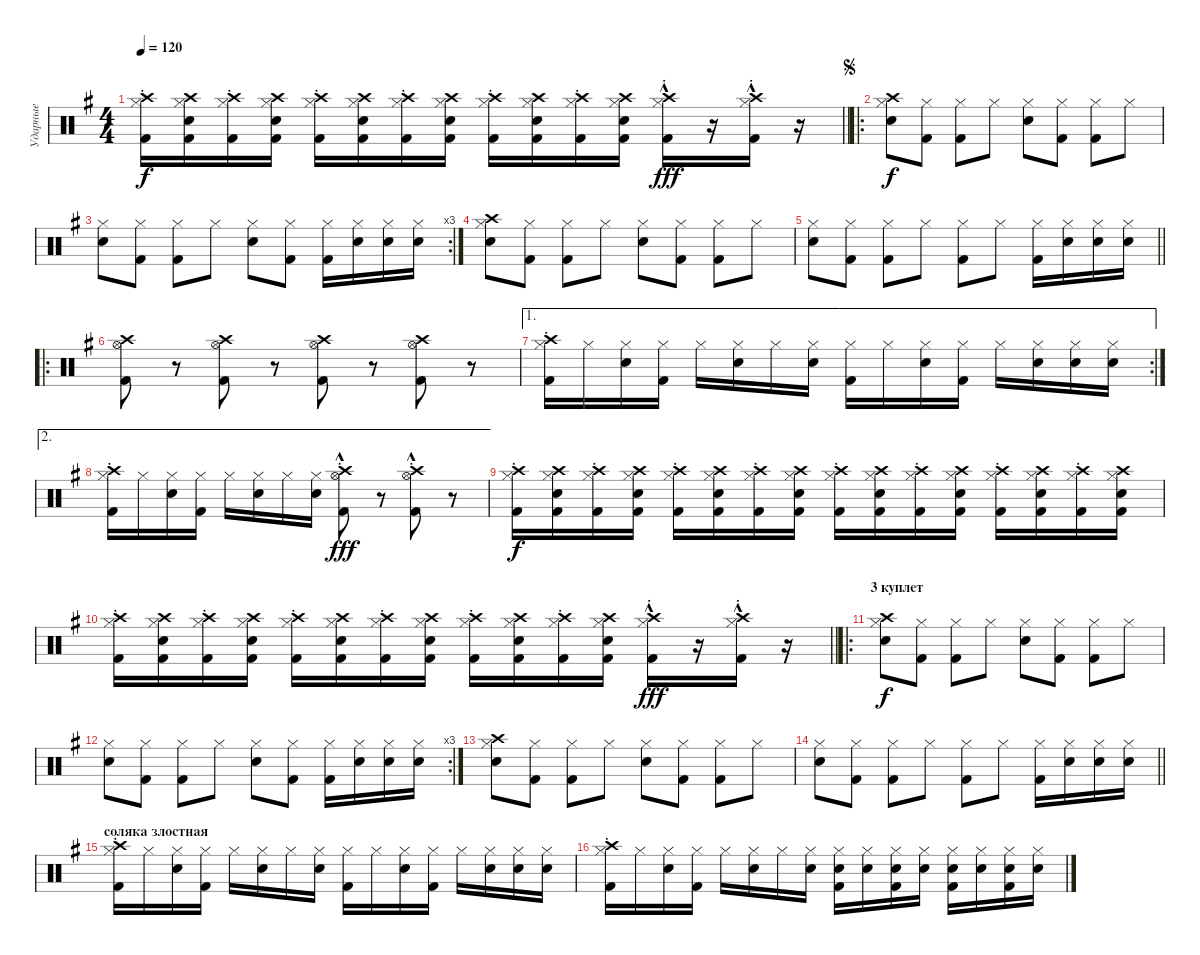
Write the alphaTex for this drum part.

\track ("Ударные" "Ударные") {instrument percussion}
\staff {score}
\articulation defaults
\ts (4 4)
\tempo 120
\clef neutral
\barLineRight lightlight
\ks eminor
("Hi-Hat (closed)" "Crash high (hit)" "Kick (hit) 2"{st}).16{dy f} ("Hi-Hat (closed)" "Crash high (hit)" "Snare (hit) 2" "Kick (hit) 2").16 ("Hi-Hat (closed)" "Crash high (hit)" "Kick (hit) 2"{st}).16 ("Hi-Hat (closed)" "Crash high (hit)" "Snare (hit) 2" "Kick (hit) 2").16 ("Hi-Hat (closed)" "Crash high (hit)" "Kick (hit) 2"{st}).16 ("Hi-Hat (closed)" "Crash high (hit)" "Snare (hit) 2" "Kick (hit) 2").16 ("Hi-Hat (closed)" "Crash high (hit)" "Kick (hit) 2"{st}).16 ("Hi-Hat (closed)" "Crash high (hit)" "Snare (hit) 2" "Kick (hit) 2").16 ("Hi-Hat (closed)" "Crash high (hit)" "Kick (hit) 2"{st}).16 ("Hi-Hat (closed)" "Crash high (hit)" "Snare (hit) 2" "Kick (hit) 2").16 ("Hi-Hat (closed)" "Crash high (hit)" "Kick (hit) 2"{st}).16 ("Hi-Hat (closed)" "Crash high (hit)" "Snare (hit) 2" "Kick (hit) 2").16 ("Hi-Hat (closed)" "Crash high (hit)"{hac} "Kick (hit) 2"{hac st}).16{dy fff} r.16 ("Hi-Hat (closed)" "Crash high (hit)"{hac} "Kick (hit) 2"{hac st}).16 r.16 |
\ro
\jump segno
("Hi-Hat (closed)" "Crash high (hit)" "Snare (hit) 2").8{dy f} ("Hi-Hat (closed)" "Kick (hit) 2").8 ("Hi-Hat (closed)" "Kick (hit) 2").8 "Hi-Hat (closed)".8 ("Hi-Hat (closed)" "Snare (hit) 2").8 ("Hi-Hat (closed)" "Kick (hit) 2").8 ("Hi-Hat (closed)" "Kick (hit) 2").8 "Hi-Hat (closed)".8 |
\rc 3
("Hi-Hat (closed)" "Snare (hit) 2").8 ("Hi-Hat (closed)" "Kick (hit) 2").8 ("Hi-Hat (closed)" "Kick (hit) 2").8 "Hi-Hat (closed)".8 ("Hi-Hat (closed)" "Snare (hit) 2").8 ("Hi-Hat (closed)" "Kick (hit) 2").8 ("Hi-Hat (closed)" "Kick (hit) 2").16 ("Hi-Hat (closed)" "Snare (hit) 2").16 ("Hi-Hat (closed)" "Snare (hit) 2").16 ("Hi-Hat (closed)" "Snare (hit) 2").16 |
("Hi-Hat (closed)" "Crash high (hit)" "Snare (hit) 2").8 ("Hi-Hat (closed)" "Kick (hit) 2").8 ("Hi-Hat (closed)" "Kick (hit) 2").8 "Hi-Hat (closed)".8 ("Hi-Hat (closed)" "Snare (hit) 2").8 ("Hi-Hat (closed)" "Kick (hit) 2").8 ("Hi-Hat (closed)" "Kick (hit) 2").8 "Hi-Hat (closed)".8 |
\barLineRight lightlight
("Hi-Hat (closed)" "Snare (hit) 2").8 ("Hi-Hat (closed)" "Kick (hit) 2").8 ("Hi-Hat (closed)" "Kick (hit) 2").8 "Hi-Hat (closed)".8 ("Hi-Hat (closed)" "Kick (hit) 2").8 "Hi-Hat (closed)".8 ("Hi-Hat (closed)" "Kick (hit) 2").16 ("Hi-Hat (closed)" "Snare (hit) 2").16 ("Hi-Hat (closed)" "Snare (hit) 2").16 ("Hi-Hat (closed)" "Snare (hit) 2").16 |
\ro
("Crash high (hit)" "Hi-Hat (open)" "Kick (hit) 2").8 r.8 ("Crash high (hit)" "Hi-Hat (open)" "Kick (hit) 2").8 r.8 ("Crash high (hit)" "Hi-Hat (open)" "Kick (hit) 2").8 r.8 ("Crash high (hit)" "Hi-Hat (open)" "Kick (hit) 2").8 r.8 |
\ae 1
\rc 2
("Hi-Hat (closed)" "Crash high (hit)" "Kick (hit) 2"{st}).16 "Hi-Hat (closed)".16 ("Hi-Hat (closed)" "Snare (hit) 2").16 ("Hi-Hat (closed)" "Kick (hit) 2").16 "Hi-Hat (closed)".16 ("Hi-Hat (closed)" "Snare (hit) 2").16 "Hi-Hat (closed)".16 ("Hi-Hat (closed)" "Snare (hit) 2").16 ("Hi-Hat (closed)" "Kick (hit) 2").16 "Hi-Hat (closed)".16 ("Hi-Hat (closed)" "Snare (hit) 2").16 ("Hi-Hat (closed)" "Kick (hit) 2").16 "Hi-Hat (closed)".16 ("Hi-Hat (closed)" "Snare (hit) 2").16 ("Hi-Hat (closed)" "Snare (hit) 2").16 ("Hi-Hat (closed)" "Snare (hit) 2").16 |
\ae 2
("Hi-Hat (closed)" "Crash high (hit)" "Kick (hit) 2"{st}).16 "Hi-Hat (closed)".16 ("Hi-Hat (closed)" "Snare (hit) 2").16 ("Hi-Hat (closed)" "Kick (hit) 2").16 "Hi-Hat (closed)".16 ("Hi-Hat (closed)" "Snare (hit) 2").16 "Hi-Hat (closed)".16 ("Hi-Hat (closed)" "Snare (hit) 2").16 ("Crash high (hit)" "Hi-Hat (open)" "Kick (hit) 2"{hac st}).8{dy fff} r.8 ("Crash high (hit)" "Hi-Hat (open)" "Kick (hit) 2"{hac st}).8 r.8 |
("Hi-Hat (closed)" "Crash high (hit)" "Kick (hit) 2"{st}).16{dy f} ("Hi-Hat (closed)" "Crash high (hit)" "Snare (hit) 2" "Kick (hit) 2").16 ("Hi-Hat (closed)" "Crash high (hit)" "Kick (hit) 2"{st}).16 ("Hi-Hat (closed)" "Crash high (hit)" "Snare (hit) 2" "Kick (hit) 2").16 ("Hi-Hat (closed)" "Crash high (hit)" "Kick (hit) 2"{st}).16 ("Hi-Hat (closed)" "Crash high (hit)" "Snare (hit) 2" "Kick (hit) 2").16 ("Hi-Hat (closed)" "Crash high (hit)" "Kick (hit) 2"{st}).16 ("Hi-Hat (closed)" "Crash high (hit)" "Snare (hit) 2" "Kick (hit) 2").16 ("Hi-Hat (closed)" "Crash high (hit)" "Kick (hit) 2"{st}).16 ("Hi-Hat (closed)" "Crash high (hit)" "Snare (hit) 2" "Kick (hit) 2").16 ("Hi-Hat (closed)" "Crash high (hit)" "Kick (hit) 2"{st}).16 ("Hi-Hat (closed)" "Crash high (hit)" "Snare (hit) 2" "Kick (hit) 2").16 ("Hi-Hat (closed)" "Crash high (hit)" "Kick (hit) 2"{st}).16 ("Hi-Hat (closed)" "Crash high (hit)" "Snare (hit) 2" "Kick (hit) 2").16 ("Hi-Hat (closed)" "Crash high (hit)" "Kick (hit) 2"{st}).16 ("Hi-Hat (closed)" "Crash high (hit)" "Snare (hit) 2" "Kick (hit) 2").16 |
\barLineRight lightlight
("Hi-Hat (closed)" "Crash high (hit)" "Kick (hit) 2"{st}).16 ("Hi-Hat (closed)" "Crash high (hit)" "Snare (hit) 2" "Kick (hit) 2").16 ("Hi-Hat (closed)" "Crash high (hit)" "Kick (hit) 2"{st}).16 ("Hi-Hat (closed)" "Crash high (hit)" "Snare (hit) 2" "Kick (hit) 2").16 ("Hi-Hat (closed)" "Crash high (hit)" "Kick (hit) 2"{st}).16 ("Hi-Hat (closed)" "Crash high (hit)" "Snare (hit) 2" "Kick (hit) 2").16 ("Hi-Hat (closed)" "Crash high (hit)" "Kick (hit) 2"{st}).16 ("Hi-Hat (closed)" "Crash high (hit)" "Snare (hit) 2" "Kick (hit) 2").16 ("Hi-Hat (closed)" "Crash high (hit)" "Kick (hit) 2"{st}).16 ("Hi-Hat (closed)" "Crash high (hit)" "Snare (hit) 2" "Kick (hit) 2").16 ("Hi-Hat (closed)" "Crash high (hit)" "Kick (hit) 2"{st}).16 ("Hi-Hat (closed)" "Crash high (hit)" "Snare (hit) 2" "Kick (hit) 2").16 ("Hi-Hat (closed)" "Crash high (hit)"{hac} "Kick (hit) 2"{hac st}).16{dy fff} r.16 ("Hi-Hat (closed)" "Crash high (hit)"{hac} "Kick (hit) 2"{hac st}).16 r.16 |
\ro
\section ("" "3 куплет")
("Hi-Hat (closed)" "Crash high (hit)" "Snare (hit) 2").8{dy f} ("Hi-Hat (closed)" "Kick (hit) 2").8 ("Hi-Hat (closed)" "Kick (hit) 2").8 "Hi-Hat (closed)".8 ("Hi-Hat (closed)" "Snare (hit) 2").8 ("Hi-Hat (closed)" "Kick (hit) 2").8 ("Hi-Hat (closed)" "Kick (hit) 2").8 "Hi-Hat (closed)".8 |
\rc 3
("Hi-Hat (closed)" "Snare (hit) 2").8 ("Hi-Hat (closed)" "Kick (hit) 2").8 ("Hi-Hat (closed)" "Kick (hit) 2").8 "Hi-Hat (closed)".8 ("Hi-Hat (closed)" "Snare (hit) 2").8 ("Hi-Hat (closed)" "Kick (hit) 2").8 ("Hi-Hat (closed)" "Kick (hit) 2").16 ("Hi-Hat (closed)" "Snare (hit) 2").16 ("Hi-Hat (closed)" "Snare (hit) 2").16 ("Hi-Hat (closed)" "Snare (hit) 2").16 |
("Hi-Hat (closed)" "Crash high (hit)" "Snare (hit) 2").8 ("Hi-Hat (closed)" "Kick (hit) 2").8 ("Hi-Hat (closed)" "Kick (hit) 2").8 "Hi-Hat (closed)".8 ("Hi-Hat (closed)" "Snare (hit) 2").8 ("Hi-Hat (closed)" "Kick (hit) 2").8 ("Hi-Hat (closed)" "Kick (hit) 2").8 "Hi-Hat (closed)".8 |
\barLineRight lightlight
("Hi-Hat (closed)" "Snare (hit) 2").8 ("Hi-Hat (closed)" "Kick (hit) 2").8 ("Hi-Hat (closed)" "Kick (hit) 2").8 "Hi-Hat (closed)".8 ("Hi-Hat (closed)" "Kick (hit) 2").8 "Hi-Hat (closed)".8 ("Hi-Hat (closed)" "Kick (hit) 2").16 ("Hi-Hat (closed)" "Snare (hit) 2").16 ("Hi-Hat (closed)" "Snare (hit) 2").16 ("Hi-Hat (closed)" "Snare (hit) 2").16 |
\section ("" "соляка злостная")
("Hi-Hat (closed)" "Crash high (hit)" "Kick (hit) 2"{st}).16 "Hi-Hat (closed)".16 ("Hi-Hat (closed)" "Snare (hit) 2").16 ("Hi-Hat (closed)" "Kick (hit) 2").16 "Hi-Hat (closed)".16 ("Hi-Hat (closed)" "Snare (hit) 2").16 "Hi-Hat (closed)".16 ("Hi-Hat (closed)" "Snare (hit) 2").16 ("Hi-Hat (closed)" "Kick (hit) 2").16 "Hi-Hat (closed)".16 ("Hi-Hat (closed)" "Snare (hit) 2").16 ("Hi-Hat (closed)" "Kick (hit) 2").16 "Hi-Hat (closed)".16 ("Hi-Hat (closed)" "Snare (hit) 2").16 ("Hi-Hat (closed)" "Snare (hit) 2").16 ("Hi-Hat (closed)" "Snare (hit) 2").16 |
("Hi-Hat (closed)" "Crash high (hit)" "Kick (hit) 2"{st}).16 "Hi-Hat (closed)".16 ("Hi-Hat (closed)" "Snare (hit) 2").16 ("Hi-Hat (closed)" "Kick (hit) 2").16 "Hi-Hat (closed)".16 ("Hi-Hat (closed)" "Snare (hit) 2").16 "Hi-Hat (closed)".16 ("Hi-Hat (closed)" "Snare (hit) 2").16 ("Hi-Hat (closed)" "Snare (hit) 2" "Kick (hit) 2").16 ("Hi-Hat (closed)" "Snare (hit) 2").16 ("Hi-Hat (closed)" "Snare (hit) 2" "Kick (hit) 2").16 ("Hi-Hat (closed)" "Snare (hit) 2").16 ("Hi-Hat (closed)" "Snare (hit) 2" "Kick (hit) 2").16 ("Hi-Hat (closed)" "Snare (hit) 2").16 ("Hi-Hat (closed)" "Snare (hit) 2" "Kick (hit) 2").16 ("Hi-Hat (closed)" "Snare (hit) 2").16
